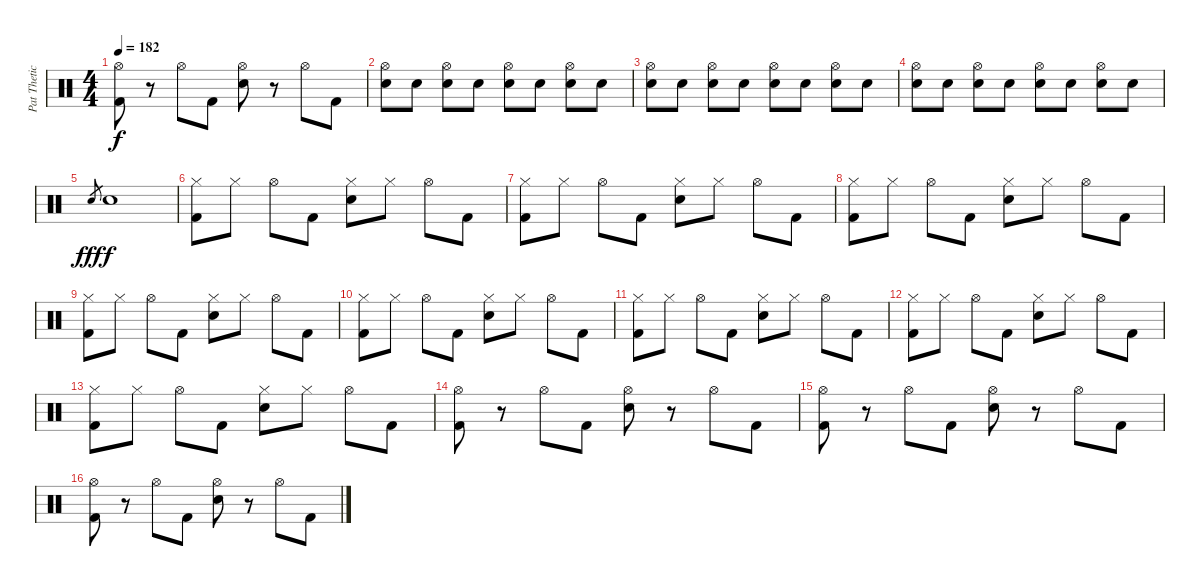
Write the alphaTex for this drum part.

\track ("Pat Thetic - Drums" "Pat Thetic") {instrument percussion}
\staff {score}
\articulation defaults
\ts (4 4)
\tempo 182
\clef neutral
\ks c
("Hi-Hat (open)" "Kick (hit) 2").8{dy f} r.8 "Hi-Hat (open)".8 "Kick (hit) 2".8 ("Hi-Hat (open)" "Electric Snare (hit)").8 r.8 "Hi-Hat (open)".8 "Kick (hit) 2".8 |
("Hi-Hat (open)" "Electric Snare (hit)").8 "Electric Snare (hit)".8 ("Hi-Hat (open)" "Electric Snare (hit)").8 "Electric Snare (hit)".8 ("Hi-Hat (open)" "Electric Snare (hit)").8 "Electric Snare (hit)".8 ("Hi-Hat (open)" "Electric Snare (hit)").8 "Electric Snare (hit)".8 |
("Hi-Hat (open)" "Electric Snare (hit)").8 "Electric Snare (hit)".8 ("Hi-Hat (open)" "Electric Snare (hit)").8 "Electric Snare (hit)".8 ("Hi-Hat (open)" "Electric Snare (hit)").8 "Electric Snare (hit)".8 ("Hi-Hat (open)" "Electric Snare (hit)").8 "Electric Snare (hit)".8 |
("Hi-Hat (open)" "Electric Snare (hit)").8 "Electric Snare (hit)".8 ("Hi-Hat (open)" "Electric Snare (hit)").8 "Electric Snare (hit)".8 ("Hi-Hat (open)" "Electric Snare (hit)").8 "Electric Snare (hit)".8 ("Hi-Hat (open)" "Electric Snare (hit)").8 "Electric Snare (hit)".8 |
"Electric Snare (hit)".8{gr dy fff} "Electric Snare (hit)".1{dy f} |
("Hi-Hat (closed)" "Kick (hit) 2").8 "Hi-Hat (closed)".8 "Hi-Hat (open)".8 "Kick (hit) 2".8 ("Hi-Hat (closed)" "Electric Snare (hit)").8 "Hi-Hat (closed)".8 "Hi-Hat (open)".8 "Kick (hit) 2".8 |
("Hi-Hat (closed)" "Kick (hit) 2").8 "Hi-Hat (closed)".8 "Hi-Hat (open)".8 "Kick (hit) 2".8 ("Hi-Hat (closed)" "Electric Snare (hit)").8 "Hi-Hat (closed)".8 "Hi-Hat (open)".8 "Kick (hit) 2".8 |
("Hi-Hat (closed)" "Kick (hit) 2").8 "Hi-Hat (closed)".8 "Hi-Hat (open)".8 "Kick (hit) 2".8 ("Hi-Hat (closed)" "Electric Snare (hit)").8 "Hi-Hat (closed)".8 "Hi-Hat (open)".8 "Kick (hit) 2".8 |
("Hi-Hat (closed)" "Kick (hit) 2").8 "Hi-Hat (closed)".8 "Hi-Hat (open)".8 "Kick (hit) 2".8 ("Hi-Hat (closed)" "Electric Snare (hit)").8 "Hi-Hat (closed)".8 "Hi-Hat (open)".8 "Kick (hit) 2".8 |
("Hi-Hat (closed)" "Kick (hit) 2").8 "Hi-Hat (closed)".8 "Hi-Hat (open)".8 "Kick (hit) 2".8 ("Hi-Hat (closed)" "Electric Snare (hit)").8 "Hi-Hat (closed)".8 "Hi-Hat (open)".8 "Kick (hit) 2".8 |
("Hi-Hat (closed)" "Kick (hit) 2").8 "Hi-Hat (closed)".8 "Hi-Hat (open)".8 "Kick (hit) 2".8 ("Hi-Hat (closed)" "Electric Snare (hit)").8 "Hi-Hat (closed)".8 "Hi-Hat (open)".8 "Kick (hit) 2".8 |
("Hi-Hat (closed)" "Kick (hit) 2").8 "Hi-Hat (closed)".8 "Hi-Hat (open)".8 "Kick (hit) 2".8 ("Hi-Hat (closed)" "Electric Snare (hit)").8 "Hi-Hat (closed)".8 "Hi-Hat (open)".8 "Kick (hit) 2".8 |
("Hi-Hat (closed)" "Kick (hit) 2").8 "Hi-Hat (closed)".8 "Hi-Hat (open)".8 "Kick (hit) 2".8 ("Hi-Hat (closed)" "Electric Snare (hit)").8 "Hi-Hat (closed)".8 "Hi-Hat (open)".8 "Kick (hit) 2".8 |
("Hi-Hat (open)" "Kick (hit) 2").8 r.8 "Hi-Hat (open)".8 "Kick (hit) 2".8 ("Hi-Hat (open)" "Electric Snare (hit)").8 r.8 "Hi-Hat (open)".8 "Kick (hit) 2".8 |
("Hi-Hat (open)" "Kick (hit) 2").8 r.8 "Hi-Hat (open)".8 "Kick (hit) 2".8 ("Hi-Hat (open)" "Electric Snare (hit)").8 r.8 "Hi-Hat (open)".8 "Kick (hit) 2".8 |
("Hi-Hat (open)" "Kick (hit) 2").8 r.8 "Hi-Hat (open)".8 "Kick (hit) 2".8 ("Hi-Hat (open)" "Electric Snare (hit)").8 r.8 "Hi-Hat (open)".8 "Kick (hit) 2".8
